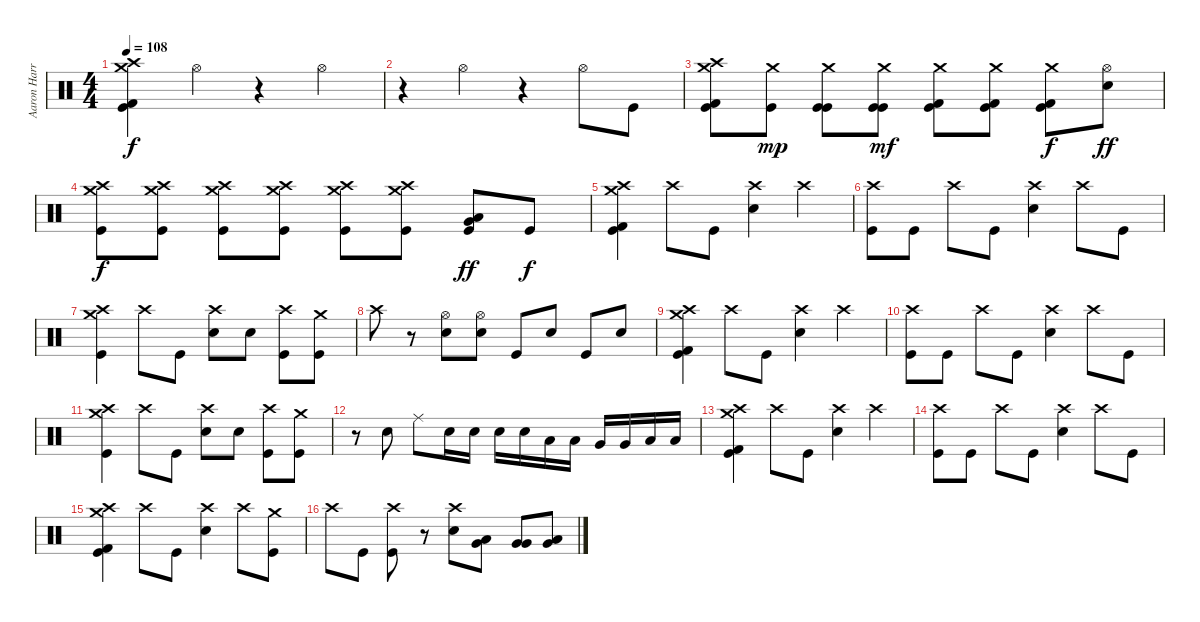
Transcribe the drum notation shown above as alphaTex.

\track ("Aaron Harris" "Aaron Harr") {instrument percussion}
\staff {score}
\articulation defaults
\ts (4 4)
\tempo 108
\clef neutral
\ks c
("Crash medium (hit)" "Crash high (hit)" "Kick (hit) 2" "Kick (hit)").4{dy f} "Hi-Hat (open)".4 r.4 "Hi-Hat (open)".4 |
r.4 "Hi-Hat (open)".4 r.4 "Hi-Hat (open)".8 "Kick (hit)".8 |
("Crash medium (hit)" "Crash high (hit)" "Kick (hit) 2" "Kick (hit)").8 ("Crash medium (hit)" "Kick (hit)").8{dy mp} ("Crash medium (hit)" "Kick (hit)" "Kick (hit)").8 ("Crash medium (hit)" "Kick (hit)" "Kick (hit)").8{dy mf} ("Crash medium (hit)" "Kick (hit) 2" "Kick (hit)").8 ("Crash medium (hit)" "Kick (hit) 2" "Kick (hit)").8 ("Crash medium (hit)" "Kick (hit) 2" "Kick (hit)").8{dy f} ("Hi-Hat (open)" "Electric Snare (hit)").8{dy ff} |
("Crash medium (hit)" "Crash high (hit)" "Kick (hit)").8{dy f} ("Crash medium (hit)" "Crash high (hit)" "Kick (hit)").8 ("Crash medium (hit)" "Crash high (hit)" "Kick (hit)").8 ("Crash medium (hit)" "Crash high (hit)" "Kick (hit)").8 ("Crash medium (hit)" "Crash high (hit)" "Kick (hit)").8 ("Crash medium (hit)" "Crash high (hit)" "Kick (hit)").8 ("Very Low Tom (hit)" "Low Floor Tom (hit)" "Kick (hit)").8{dy ff} "Kick (hit)".8{dy f} |
("Crash medium (hit)" "Crash high (hit)" "Kick (hit) 2" "Kick (hit)").4 "Crash high (hit)".8 "Kick (hit)".8 ("Crash high (hit)" "Electric Snare (hit)").4 "Crash high (hit)".4 |
("Crash high (hit)" "Kick (hit)").8 "Kick (hit)".8 "Crash high (hit)".8 "Kick (hit)".8 ("Crash high (hit)" "Electric Snare (hit)").4 "Crash high (hit)".8 "Kick (hit)".8 |
("Crash medium (hit)" "Crash high (hit)" "Kick (hit)").4 "Crash high (hit)".8 "Kick (hit)".8 ("Crash high (hit)" "Electric Snare (hit)").8 "Electric Snare (hit)".8 ("Crash high (hit)" "Kick (hit)").8 ("Crash medium (hit)" "Kick (hit)").8 |
"Crash high (hit)".8 r.8 ("Hi-Hat (open)" "Electric Snare (hit)").8 ("Hi-Hat (open)" "Electric Snare (hit)").8 "Kick (hit)".8 "Electric Snare (hit)".8 "Kick (hit)".8 "Electric Snare (hit)".8 |
("Crash medium (hit)" "Crash high (hit)" "Kick (hit) 2" "Kick (hit)").4 "Crash high (hit)".8 "Kick (hit)".8 ("Crash high (hit)" "Electric Snare (hit)").4 "Crash high (hit)".4 |
("Crash high (hit)" "Kick (hit)").8 "Kick (hit)".8 "Crash high (hit)".8 "Kick (hit)".8 ("Crash high (hit)" "Electric Snare (hit)").4 "Crash high (hit)".8 "Kick (hit)".8 |
("Crash medium (hit)" "Crash high (hit)" "Kick (hit)").4 "Crash high (hit)".8 "Kick (hit)".8 ("Crash high (hit)" "Electric Snare (hit)").8 "Electric Snare (hit)".8 ("Crash high (hit)" "Kick (hit)").8 ("Crash medium (hit)" "Kick (hit)").8 |
r.8 "Electric Snare (hit)".8 "Ride (middle)".8 "Electric Snare (hit)".16 "Electric Snare (hit)".16 "Electric Snare (hit)".16 "Electric Snare (hit)".16 "Low Tom (hit)".16 "Low Tom (hit)".16 "Very Low Tom (hit)".16 "Very Low Tom (hit)".16 "Low Floor Tom (hit)".16 "Low Floor Tom (hit)".16 |
("Crash medium (hit)" "Crash high (hit)" "Kick (hit) 2" "Kick (hit)").4 "Crash high (hit)".8 "Kick (hit)".8 ("Crash high (hit)" "Electric Snare (hit)").4 "Crash high (hit)".4 |
("Crash high (hit)" "Kick (hit)").8 "Kick (hit)".8 "Crash high (hit)".8 "Kick (hit)".8 ("Crash high (hit)" "Electric Snare (hit)").4 "Crash high (hit)".8 "Kick (hit)".8 |
("Crash medium (hit)" "Crash high (hit)" "Kick (hit) 2" "Kick (hit)").4 "Crash high (hit)".8 "Kick (hit)".8 ("Crash high (hit)" "Electric Snare (hit)").4 "Crash high (hit)".8 ("Crash medium (hit)" "Kick (hit)").8 |
"Crash high (hit)".8 "Kick (hit)".8 ("Crash high (hit)" "Kick (hit)").8 r.8 ("Crash high (hit)" "Electric Snare (hit)").8 ("Low Tom (hit)" "Very Low Tom (hit)").8 ("Very Low Tom (hit)" "Very Low Tom (hit)").8 ("Very Low Tom (hit)" "Low Floor Tom (hit)").8
